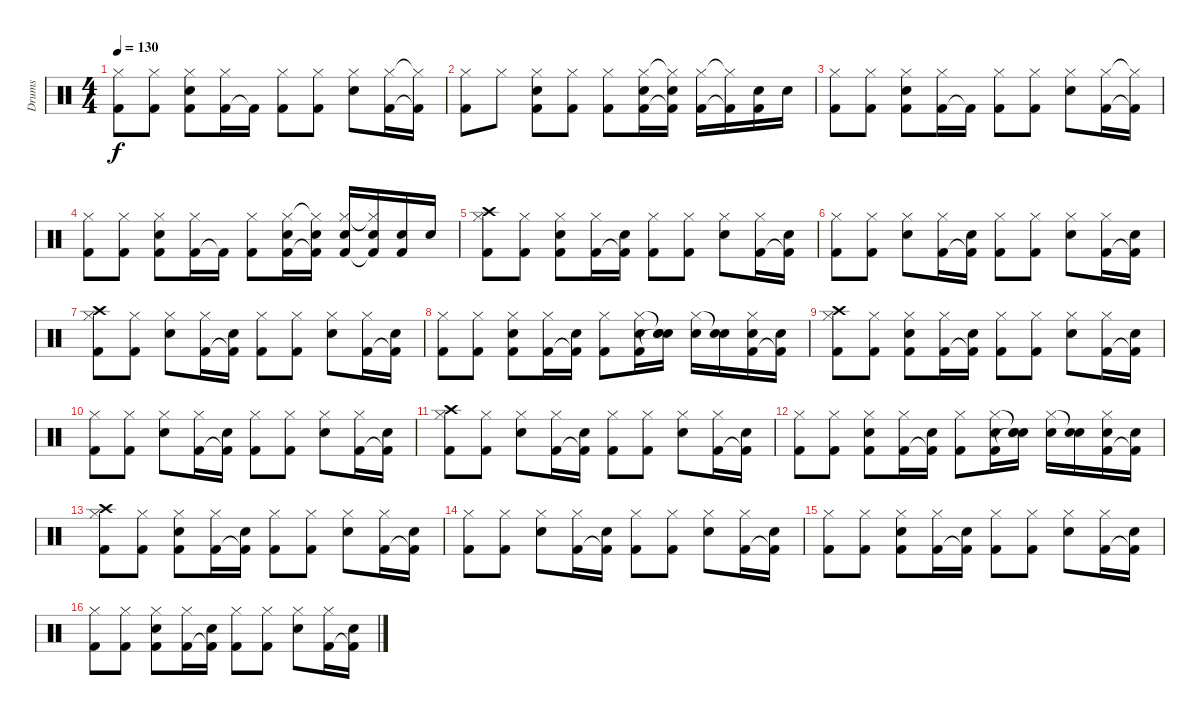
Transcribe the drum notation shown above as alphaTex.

\track ("Drums" "Drums") {instrument percussion}
\staff {score}
\articulation defaults
\ts (4 4)
\tempo 130
\clef neutral
\ks c
("Kick (hit) 2" "Hi-Hat (closed)").8{dy f} ("Kick (hit) 2" "Hi-Hat (closed)").8 ("Kick (hit) 2" "Electric Snare (hit)" "Hi-Hat (closed)").8 ("Kick (hit) 2" "Hi-Hat (closed)").16 "Kick (hit) 2"{t}.16 ("Kick (hit) 2" "Hi-Hat (closed)").8 ("Kick (hit) 2" "Hi-Hat (closed)").8 ("Electric Snare (hit)" "Hi-Hat (closed)").8 ("Kick (hit) 2" "Hi-Hat (closed)").16 ("Kick (hit) 2"{t} "Hi-Hat (closed)"{t}).16 |
("Kick (hit) 2" "Hi-Hat (closed)").8 "Hi-Hat (closed)".8 ("Kick (hit) 2" "Electric Snare (hit)" "Hi-Hat (closed)").8 ("Kick (hit) 2" "Hi-Hat (closed)").8 ("Kick (hit) 2" "Hi-Hat (closed)").8 ("Kick (hit) 2" "Electric Snare (hit)" "Hi-Hat (closed)").16 ("Kick (hit) 2"{t} "Electric Snare (hit)" "Hi-Hat (closed)"{t}).16 ("Kick (hit) 2" "Hi-Hat (closed)").16 ("Kick (hit) 2"{t} "Hi-Hat (closed)"{t}).16 ("Kick (hit) 2" "Electric Snare (hit)").16 "Electric Snare (hit)".16 |
("Kick (hit) 2" "Hi-Hat (closed)").8 ("Kick (hit) 2" "Hi-Hat (closed)").8 ("Kick (hit) 2" "Electric Snare (hit)" "Hi-Hat (closed)").8 ("Kick (hit) 2" "Hi-Hat (closed)").16 "Kick (hit) 2"{t}.16 ("Kick (hit) 2" "Hi-Hat (closed)").8 ("Kick (hit) 2" "Hi-Hat (closed)").8 ("Electric Snare (hit)" "Hi-Hat (closed)").8 ("Kick (hit) 2" "Hi-Hat (closed)").16 ("Kick (hit) 2"{t} "Hi-Hat (closed)"{t}).16 |
("Kick (hit) 2" "Hi-Hat (closed)").8 ("Kick (hit) 2" "Hi-Hat (closed)").8 ("Kick (hit) 2" "Electric Snare (hit)" "Hi-Hat (closed)").8 ("Kick (hit) 2" "Hi-Hat (closed)").16 "Kick (hit) 2"{t}.16 ("Kick (hit) 2" "Hi-Hat (closed)").8 ("Kick (hit) 2" "Electric Snare (hit)" "Hi-Hat (closed)").16 ("Kick (hit) 2"{t} "Electric Snare (hit)" "Hi-Hat (closed)"{t}).16 ("Kick (hit) 2" "Electric Snare (hit)" "Hi-Hat (closed)").16 ("Kick (hit) 2"{t} "Electric Snare (hit)" "Hi-Hat (closed)"{t}).16 ("Kick (hit) 2" "Electric Snare (hit)").16 "Electric Snare (hit)".16 |
("Kick (hit) 2" "Hi-Hat (closed)" "Crash high (hit)").8 ("Kick (hit) 2" "Hi-Hat (closed)").8 ("Kick (hit) 2" "Electric Snare (hit)" "Hi-Hat (closed)").8 ("Kick (hit) 2" "Hi-Hat (closed)").16 ("Kick (hit) 2"{t} "Electric Snare (hit)").16 ("Kick (hit) 2" "Hi-Hat (closed)").8 ("Kick (hit) 2" "Hi-Hat (closed)").8 ("Electric Snare (hit)" "Hi-Hat (closed)").8 ("Kick (hit) 2" "Hi-Hat (closed)").16 ("Kick (hit) 2"{t} "Electric Snare (hit)").16 |
("Kick (hit) 2" "Hi-Hat (closed)").8 ("Kick (hit) 2" "Hi-Hat (closed)").8 ("Electric Snare (hit)" "Hi-Hat (closed)").8 ("Kick (hit) 2" "Hi-Hat (closed)").16 ("Kick (hit) 2"{t} "Electric Snare (hit)").16 ("Kick (hit) 2" "Hi-Hat (closed)").8 ("Kick (hit) 2" "Hi-Hat (closed)").8 ("Electric Snare (hit)" "Hi-Hat (closed)").8 ("Kick (hit) 2" "Hi-Hat (closed)").16 ("Kick (hit) 2"{t} "Electric Snare (hit)").16 |
("Kick (hit) 2" "Hi-Hat (closed)" "Crash high (hit)").8 ("Kick (hit) 2" "Hi-Hat (closed)").8 ("Electric Snare (hit)" "Hi-Hat (closed)").8 ("Kick (hit) 2" "Hi-Hat (closed)").16 ("Kick (hit) 2"{t} "Electric Snare (hit)").16 ("Kick (hit) 2" "Hi-Hat (closed)").8 ("Kick (hit) 2" "Hi-Hat (closed)").8 ("Electric Snare (hit)" "Hi-Hat (closed)").8 ("Kick (hit) 2" "Hi-Hat (closed)").16 ("Kick (hit) 2"{t} "Electric Snare (hit)").16 |
("Kick (hit) 2" "Hi-Hat (closed)").8 ("Kick (hit) 2" "Hi-Hat (closed)").8 ("Kick (hit) 2" "Electric Snare (hit)" "Hi-Hat (closed)").8 ("Kick (hit) 2" "Hi-Hat (closed)").16 ("Kick (hit) 2"{t} "Electric Snare (hit)").16 ("Kick (hit) 2" "Hi-Hat (closed)").8 ("Kick (hit) 2" "Electric Snare (hit)" "Hi-Hat (closed)").16 ("Snare (hit)"{t} "Electric Snare (hit)" "Snare (hit)"{t}).16 ("Electric Snare (hit)" "Hi-Hat (closed)").16 ("Electric Snare (hit)" "Snare (hit)"{t}).16 ("Kick (hit) 2" "Electric Snare (hit)" "Hi-Hat (closed)").16 ("Kick (hit) 2"{t} "Electric Snare (hit)").16 |
("Kick (hit) 2" "Hi-Hat (closed)" "Crash high (hit)").8 ("Kick (hit) 2" "Hi-Hat (closed)").8 ("Kick (hit) 2" "Electric Snare (hit)" "Hi-Hat (closed)").8 ("Kick (hit) 2" "Hi-Hat (closed)").16 ("Kick (hit) 2"{t} "Electric Snare (hit)").16 ("Kick (hit) 2" "Hi-Hat (closed)").8 ("Kick (hit) 2" "Hi-Hat (closed)").8 ("Electric Snare (hit)" "Hi-Hat (closed)").8 ("Kick (hit) 2" "Hi-Hat (closed)").16 ("Kick (hit) 2"{t} "Electric Snare (hit)").16 |
("Kick (hit) 2" "Hi-Hat (closed)").8 ("Kick (hit) 2" "Hi-Hat (closed)").8 ("Electric Snare (hit)" "Hi-Hat (closed)").8 ("Kick (hit) 2" "Hi-Hat (closed)").16 ("Kick (hit) 2"{t} "Electric Snare (hit)").16 ("Kick (hit) 2" "Hi-Hat (closed)").8 ("Kick (hit) 2" "Hi-Hat (closed)").8 ("Electric Snare (hit)" "Hi-Hat (closed)").8 ("Kick (hit) 2" "Hi-Hat (closed)").16 ("Kick (hit) 2"{t} "Electric Snare (hit)").16 |
("Kick (hit) 2" "Hi-Hat (closed)" "Crash high (hit)").8 ("Kick (hit) 2" "Hi-Hat (closed)").8 ("Electric Snare (hit)" "Hi-Hat (closed)").8 ("Kick (hit) 2" "Hi-Hat (closed)").16 ("Kick (hit) 2"{t} "Electric Snare (hit)").16 ("Kick (hit) 2" "Hi-Hat (closed)").8 ("Kick (hit) 2" "Hi-Hat (closed)").8 ("Electric Snare (hit)" "Hi-Hat (closed)").8 ("Kick (hit) 2" "Hi-Hat (closed)").16 ("Kick (hit) 2"{t} "Electric Snare (hit)").16 |
("Kick (hit) 2" "Hi-Hat (closed)").8 ("Kick (hit) 2" "Hi-Hat (closed)").8 ("Kick (hit) 2" "Electric Snare (hit)" "Hi-Hat (closed)").8 ("Kick (hit) 2" "Hi-Hat (closed)").16 ("Kick (hit) 2"{t} "Electric Snare (hit)").16 ("Kick (hit) 2" "Hi-Hat (closed)").8 ("Kick (hit) 2" "Electric Snare (hit)" "Hi-Hat (closed)").16 ("Snare (hit)"{t} "Electric Snare (hit)" "Snare (hit)"{t}).16 ("Electric Snare (hit)" "Hi-Hat (closed)").16 ("Electric Snare (hit)" "Snare (hit)"{t}).16 ("Kick (hit) 2" "Electric Snare (hit)" "Hi-Hat (closed)").16 ("Kick (hit) 2"{t} "Electric Snare (hit)").16 |
("Kick (hit) 2" "Hi-Hat (closed)" "Crash high (hit)").8 ("Kick (hit) 2" "Hi-Hat (closed)").8 ("Kick (hit) 2" "Electric Snare (hit)" "Hi-Hat (closed)").8 ("Kick (hit) 2" "Hi-Hat (closed)").16 ("Kick (hit) 2"{t} "Electric Snare (hit)").16 ("Kick (hit) 2" "Hi-Hat (closed)").8 ("Kick (hit) 2" "Hi-Hat (closed)").8 ("Electric Snare (hit)" "Hi-Hat (closed)").8 ("Kick (hit) 2" "Hi-Hat (closed)").16 ("Kick (hit) 2"{t} "Electric Snare (hit)").16 |
("Kick (hit) 2" "Hi-Hat (closed)").8 ("Kick (hit) 2" "Hi-Hat (closed)").8 ("Electric Snare (hit)" "Hi-Hat (closed)").8 ("Kick (hit) 2" "Hi-Hat (closed)").16 ("Kick (hit) 2"{t} "Electric Snare (hit)").16 ("Kick (hit) 2" "Hi-Hat (closed)").8 ("Kick (hit) 2" "Hi-Hat (closed)").8 ("Electric Snare (hit)" "Hi-Hat (closed)").8 ("Kick (hit) 2" "Hi-Hat (closed)").16 ("Kick (hit) 2"{t} "Electric Snare (hit)").16 |
("Kick (hit) 2" "Hi-Hat (closed)").8 ("Kick (hit) 2" "Hi-Hat (closed)").8 ("Kick (hit) 2" "Electric Snare (hit)" "Hi-Hat (closed)").8 ("Kick (hit) 2" "Hi-Hat (closed)").16 ("Kick (hit) 2"{t} "Electric Snare (hit)").16 ("Kick (hit) 2" "Hi-Hat (closed)").8 ("Kick (hit) 2" "Hi-Hat (closed)").8 ("Electric Snare (hit)" "Hi-Hat (closed)").8 ("Kick (hit) 2" "Hi-Hat (closed)").16 ("Kick (hit) 2"{t} "Electric Snare (hit)").16 |
("Kick (hit) 2" "Hi-Hat (closed)").8 ("Kick (hit) 2" "Hi-Hat (closed)").8 ("Kick (hit) 2" "Electric Snare (hit)" "Hi-Hat (closed)").8 ("Kick (hit) 2" "Hi-Hat (closed)").16 ("Kick (hit) 2"{t} "Electric Snare (hit)").16 ("Kick (hit) 2" "Hi-Hat (closed)").8 ("Kick (hit) 2" "Hi-Hat (closed)").8 ("Electric Snare (hit)" "Hi-Hat (closed)").8 ("Kick (hit) 2" "Hi-Hat (closed)").16 ("Kick (hit) 2"{t} "Electric Snare (hit)").16
